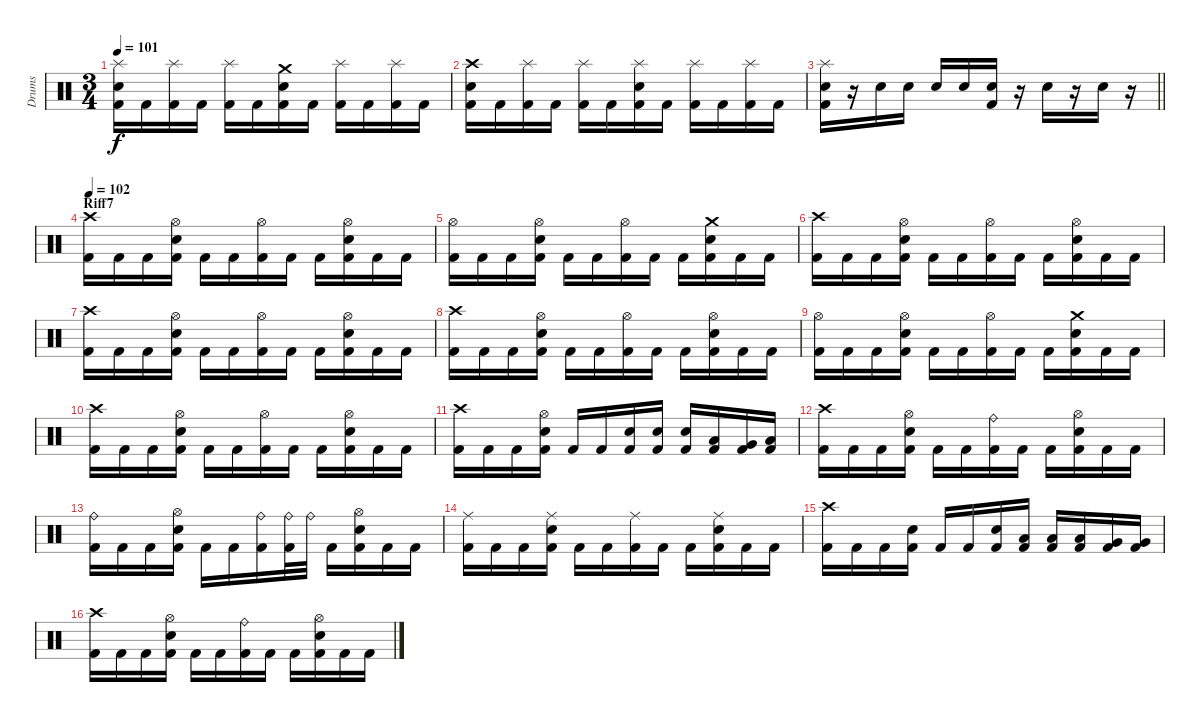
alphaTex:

\track ("Drums" "Drums") {instrument percussion}
\staff {score}
\articulation defaults
\ts (3 4)
\tempo 101
\clef neutral
\ks c
("Splash (hit)" "Snare (hit) 2" "Kick (hit) 2").16{dy f} "Kick (hit) 2".16 ("Splash (hit)" "Kick (hit) 2").16 "Kick (hit) 2".16 ("Splash (hit)" "Kick (hit) 2").16 "Kick (hit) 2".16 ("Crash medium (hit)" "Snare (hit) 2" "Kick (hit) 2").16 "Kick (hit) 2".16 ("Splash (hit)" "Kick (hit) 2").16 "Kick (hit) 2".16 ("Splash (hit)" "Kick (hit) 2").16 "Kick (hit) 2".16 |
("Crash high (hit)" "Snare (hit) 2" "Kick (hit) 2").16 "Kick (hit) 2".16 ("Splash (hit)" "Kick (hit) 2").16 "Kick (hit) 2".16 ("Splash (hit)" "Kick (hit) 2").16 "Kick (hit) 2".16 ("Splash (hit)" "Snare (hit) 2" "Kick (hit) 2").16 "Kick (hit) 2".16 ("Splash (hit)" "Kick (hit) 2").16 "Kick (hit) 2".16 ("Splash (hit)" "Kick (hit) 2").16 "Kick (hit) 2".16 |
\barLineRight lightlight
("Splash (hit)" "Snare (hit) 2" "Kick (hit) 2").16 r.16 "Snare (hit) 2".16 "Snare (hit) 2".16 "Snare (hit) 2".16 "Snare (hit) 2".16 ("Snare (hit) 2" "Kick (hit) 2").16 r.16 "Snare (hit) 2".16 r.16 "Snare (hit) 2".16 r.16 |
\section ("" "Riff7")
\tempo 102
("Crash high (hit)" "Kick (hit) 2").16 "Kick (hit) 2".16 "Kick (hit) 2".16 ("Snare (hit) 2" "Hi-Hat (open)" "Kick (hit) 2").16 "Kick (hit) 2".16 "Kick (hit) 2".16 ("Hi-Hat (open)" "Kick (hit) 2").16 "Kick (hit) 2".16 "Kick (hit) 2".16 ("Snare (hit) 2" "Hi-Hat (open)" "Kick (hit) 2").16 "Kick (hit) 2".16 "Kick (hit) 2".16 |
("Hi-Hat (open)" "Kick (hit) 2").16 "Kick (hit) 2".16 "Kick (hit) 2".16 ("Snare (hit) 2" "Hi-Hat (open)" "Kick (hit) 2").16 "Kick (hit) 2".16 "Kick (hit) 2".16 ("Hi-Hat (open)" "Kick (hit) 2").16 "Kick (hit) 2".16 "Kick (hit) 2".16 ("Snare (hit) 2" "Crash medium (hit)" "Kick (hit) 2").16 "Kick (hit) 2".16 "Kick (hit) 2".16 |
("Crash high (hit)" "Kick (hit) 2").16 "Kick (hit) 2".16 "Kick (hit) 2".16 ("Snare (hit) 2" "Hi-Hat (open)" "Kick (hit) 2").16 "Kick (hit) 2".16 "Kick (hit) 2".16 ("Hi-Hat (open)" "Kick (hit) 2").16 "Kick (hit) 2".16 "Kick (hit) 2".16 ("Snare (hit) 2" "Hi-Hat (open)" "Kick (hit) 2").16 "Kick (hit) 2".16 "Kick (hit) 2".16 |
("Crash high (hit)" "Kick (hit) 2").16 "Kick (hit) 2".16 "Kick (hit) 2".16 ("Snare (hit) 2" "Hi-Hat (open)" "Kick (hit) 2").16 "Kick (hit) 2".16 "Kick (hit) 2".16 ("Hi-Hat (open)" "Kick (hit) 2").16 "Kick (hit) 2".16 "Kick (hit) 2".16 ("Snare (hit) 2" "Hi-Hat (open)" "Kick (hit) 2").16 "Kick (hit) 2".16 "Kick (hit) 2".16 |
("Crash high (hit)" "Kick (hit) 2").16 "Kick (hit) 2".16 "Kick (hit) 2".16 ("Snare (hit) 2" "Hi-Hat (open)" "Kick (hit) 2").16 "Kick (hit) 2".16 "Kick (hit) 2".16 ("Hi-Hat (open)" "Kick (hit) 2").16 "Kick (hit) 2".16 "Kick (hit) 2".16 ("Snare (hit) 2" "Hi-Hat (open)" "Kick (hit) 2").16 "Kick (hit) 2".16 "Kick (hit) 2".16 |
("Hi-Hat (open)" "Kick (hit) 2").16 "Kick (hit) 2".16 "Kick (hit) 2".16 ("Snare (hit) 2" "Hi-Hat (open)" "Kick (hit) 2").16 "Kick (hit) 2".16 "Kick (hit) 2".16 ("Hi-Hat (open)" "Kick (hit) 2").16 "Kick (hit) 2".16 "Kick (hit) 2".16 ("Snare (hit) 2" "Crash medium (hit)" "Kick (hit) 2").16 "Kick (hit) 2".16 "Kick (hit) 2".16 |
("Crash high (hit)" "Kick (hit) 2").16 "Kick (hit) 2".16 "Kick (hit) 2".16 ("Snare (hit) 2" "Hi-Hat (open)" "Kick (hit) 2").16 "Kick (hit) 2".16 "Kick (hit) 2".16 ("Hi-Hat (open)" "Kick (hit) 2").16 "Kick (hit) 2".16 "Kick (hit) 2".16 ("Snare (hit) 2" "Hi-Hat (open)" "Kick (hit) 2").16 "Kick (hit) 2".16 "Kick (hit) 2".16 |
("Crash high (hit)" "Kick (hit) 2").16 "Kick (hit) 2".16 "Kick (hit) 2".16 ("Snare (hit) 2" "Hi-Hat (open)" "Kick (hit) 2").16 "Kick (hit) 2".16 "Kick (hit) 2".16 ("Snare (hit) 2" "Kick (hit) 2").16 ("Snare (hit) 2" "Kick (hit) 2").16 ("Snare (hit) 2" "Kick (hit) 2").16 ("Low Tom (hit)" "Kick (hit) 2").16 ("Very Low Tom (hit)" "Kick (hit) 2").16 ("Low Floor Tom (hit)" "Kick (hit) 2").16 |
("Crash high (hit)" "Kick (hit) 2").16 "Kick (hit) 2".16 "Kick (hit) 2".16 ("Snare (hit) 2" "Hi-Hat (open)" "Kick (hit) 2").16 "Kick (hit) 2".16 "Kick (hit) 2".16 ("Ride (bell)" "Kick (hit) 2").16 "Kick (hit) 2".16 "Kick (hit) 2".16 ("Snare (hit) 2" "Hi-Hat (open)" "Kick (hit) 2").16 "Kick (hit) 2".16 "Kick (hit) 2".16 |
("Ride (bell)" "Kick (hit) 2").16 "Kick (hit) 2".16 "Kick (hit) 2".16 ("Snare (hit) 2" "Hi-Hat (open)" "Kick (hit) 2").16 "Kick (hit) 2".16 "Kick (hit) 2".16 ("Ride (bell)" "Kick (hit) 2").16 ("Ride (bell)" "Kick (hit) 2").32 "Ride (bell)".32 "Kick (hit) 2".16 ("Snare (hit) 2" "Hi-Hat (open)" "Kick (hit) 2").16 "Kick (hit) 2".16 "Kick (hit) 2".16 |
("Ride (middle)" "Kick (hit) 2").16 "Kick (hit) 2".16 "Kick (hit) 2".16 ("Snare (hit) 2" "Ride (middle)" "Kick (hit) 2").16 "Kick (hit) 2".16 "Kick (hit) 2".16 ("Ride (middle)" "Kick (hit) 2").16 "Kick (hit) 2".16 "Kick (hit) 2".16 ("Snare (hit) 2" "Ride (middle)" "Kick (hit) 2").16 "Kick (hit) 2".16 "Kick (hit) 2".16 |
("Crash high (hit)" "Kick (hit) 2").16 "Kick (hit) 2".16 "Kick (hit) 2".16 ("Snare (hit) 2" "Kick (hit) 2").16 "Kick (hit) 2".16 "Kick (hit) 2".16 ("Snare (hit) 2" "Kick (hit) 2").16 ("Low Tom (hit)" "Kick (hit) 2").16 ("Low Tom (hit)" "Kick (hit) 2").16 ("Low Tom (hit)" "Kick (hit) 2").16 ("Very Low Tom (hit)" "Kick (hit) 2").16 ("Very Low Tom (hit)" "Kick (hit) 2").16 |
("Crash high (hit)" "Kick (hit) 2").16 "Kick (hit) 2".16 "Kick (hit) 2".16 ("Snare (hit) 2" "Hi-Hat (open)" "Kick (hit) 2").16 "Kick (hit) 2".16 "Kick (hit) 2".16 ("Ride (bell)" "Kick (hit) 2").16 "Kick (hit) 2".16 "Kick (hit) 2".16 ("Snare (hit) 2" "Hi-Hat (open)" "Kick (hit) 2").16 "Kick (hit) 2".16 "Kick (hit) 2".16
